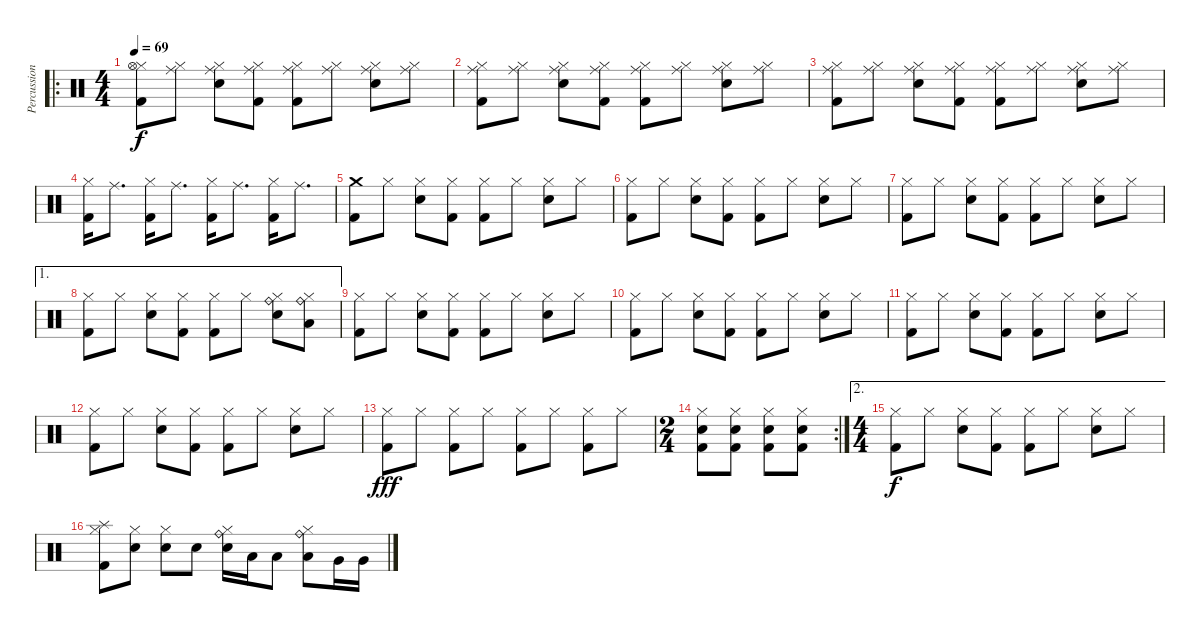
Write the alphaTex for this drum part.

\track ("Percussion" "Percussion") {instrument percussion}
\staff {score}
\articulation defaults
\ro
\ts (4 4)
\tempo 69
\clef neutral
\ks c
("Hi-Hat (closed)" "Hi-Hat (open)" "Kick (hit) 2").8{dy f} ("Hi-Hat (closed)" "Ride (middle)").8 ("Hi-Hat (closed)" "Ride (middle)" "Snare (hit) 2").8 ("Hi-Hat (closed)" "Ride (middle)" "Kick (hit) 2").8 ("Hi-Hat (closed)" "Ride (middle)" "Kick (hit) 2").8 ("Hi-Hat (closed)" "Ride (middle)").8 ("Hi-Hat (closed)" "Ride (middle)" "Snare (hit) 2").8 ("Hi-Hat (closed)" "Ride (middle)").8 |
("Hi-Hat (closed)" "Ride (middle)" "Kick (hit) 2").8 ("Hi-Hat (closed)" "Ride (middle)").8 ("Hi-Hat (closed)" "Ride (middle)" "Snare (hit) 2").8 ("Hi-Hat (closed)" "Ride (middle)" "Kick (hit) 2").8 ("Hi-Hat (closed)" "Ride (middle)" "Kick (hit) 2").8 ("Hi-Hat (closed)" "Ride (middle)").8 ("Hi-Hat (closed)" "Ride (middle)" "Snare (hit) 2").8 ("Hi-Hat (closed)" "Ride (middle)").8 |
("Hi-Hat (closed)" "Ride (middle)" "Kick (hit) 2").8 ("Hi-Hat (closed)" "Ride (middle)").8 ("Hi-Hat (closed)" "Ride (middle)" "Snare (hit) 2").8 ("Hi-Hat (closed)" "Ride (middle)" "Kick (hit) 2").8 ("Hi-Hat (closed)" "Ride (middle)" "Kick (hit) 2").8 ("Hi-Hat (closed)" "Ride (middle)").8 ("Hi-Hat (closed)" "Ride (middle)" "Snare (hit) 2").8 ("Hi-Hat (closed)" "Ride (middle)").8 |
("Hi-Hat (closed)" "Kick (hit) 2").16 "Ride (middle)".8{d} ("Hi-Hat (closed)" "Kick (hit) 2").16 "Ride (middle)".8{d} ("Hi-Hat (closed)" "Kick (hit) 2").16 "Ride (middle)".8{d} ("Hi-Hat (closed)" "Kick (hit) 2").16 "Ride (middle)".8{d} |
("Crash medium (hit)" "Kick (hit) 2").8 "Hi-Hat (closed)".8 ("Hi-Hat (closed)" "Snare (hit) 2").8 ("Hi-Hat (closed)" "Kick (hit) 2").8 ("Hi-Hat (closed)" "Kick (hit) 2").8 "Hi-Hat (closed)".8 ("Hi-Hat (closed)" "Snare (hit) 2").8 "Hi-Hat (closed)".8 |
("Hi-Hat (closed)" "Kick (hit) 2").8 "Hi-Hat (closed)".8 ("Hi-Hat (closed)" "Snare (hit) 2").8 ("Hi-Hat (closed)" "Kick (hit) 2").8 ("Hi-Hat (closed)" "Kick (hit) 2").8 "Hi-Hat (closed)".8 ("Hi-Hat (closed)" "Snare (hit) 2").8 "Hi-Hat (closed)".8 |
("Hi-Hat (closed)" "Kick (hit) 2").8 "Hi-Hat (closed)".8 ("Hi-Hat (closed)" "Snare (hit) 2").8 ("Hi-Hat (closed)" "Kick (hit) 2").8 ("Hi-Hat (closed)" "Kick (hit) 2").8 "Hi-Hat (closed)".8 ("Hi-Hat (closed)" "Snare (hit) 2").8 "Hi-Hat (closed)".8 |
\ae 1
("Hi-Hat (closed)" "Kick (hit) 2").8 "Hi-Hat (closed)".8 ("Hi-Hat (closed)" "Snare (hit) 2").8 ("Hi-Hat (closed)" "Kick (hit) 2").8 ("Hi-Hat (closed)" "Kick (hit) 2").8 "Hi-Hat (closed)".8 ("Hi-Hat (closed)" "Ride (bell)" "Snare (hit) 2").8 ("Hi-Hat (closed)" "Ride (bell)" "Low Tom (hit)").8 |
("Hi-Hat (closed)" "Kick (hit) 2").8 "Hi-Hat (closed)".8 ("Hi-Hat (closed)" "Snare (hit) 2").8 ("Hi-Hat (closed)" "Kick (hit) 2").8 ("Hi-Hat (closed)" "Kick (hit) 2").8 "Hi-Hat (closed)".8 ("Hi-Hat (closed)" "Snare (hit) 2").8 "Hi-Hat (closed)".8 |
("Hi-Hat (closed)" "Kick (hit) 2").8 "Hi-Hat (closed)".8 ("Hi-Hat (closed)" "Snare (hit) 2").8 ("Hi-Hat (closed)" "Kick (hit) 2").8 ("Hi-Hat (closed)" "Kick (hit) 2").8 "Hi-Hat (closed)".8 ("Hi-Hat (closed)" "Snare (hit) 2").8 "Hi-Hat (closed)".8 |
("Hi-Hat (closed)" "Kick (hit) 2").8 "Hi-Hat (closed)".8 ("Hi-Hat (closed)" "Snare (hit) 2").8 ("Hi-Hat (closed)" "Kick (hit) 2").8 ("Hi-Hat (closed)" "Kick (hit) 2").8 "Hi-Hat (closed)".8 ("Hi-Hat (closed)" "Snare (hit) 2").8 "Hi-Hat (closed)".8 |
("Hi-Hat (closed)" "Kick (hit) 2").8 "Hi-Hat (closed)".8 ("Hi-Hat (closed)" "Snare (hit) 2").8 ("Hi-Hat (closed)" "Kick (hit) 2").8 ("Hi-Hat (closed)" "Kick (hit) 2").8 "Hi-Hat (closed)".8 ("Hi-Hat (closed)" "Snare (hit) 2").8 "Hi-Hat (closed)".8 |
("Hi-Hat (closed)" "Kick (hit) 2").8{dy fff} "Hi-Hat (closed)".8 ("Hi-Hat (closed)" "Kick (hit) 2").8 "Hi-Hat (closed)".8 ("Hi-Hat (closed)" "Kick (hit) 2").8 "Hi-Hat (closed)".8 ("Hi-Hat (closed)" "Kick (hit) 2").8 "Hi-Hat (closed)".8 |
\rc 2
\ts (2 4)
("Hi-Hat (closed)" "Snare (hit) 2" "Kick (hit) 2").8 ("Hi-Hat (closed)" "Snare (hit) 2" "Kick (hit) 2").8 ("Hi-Hat (closed)" "Snare (hit) 2" "Kick (hit) 2").8 ("Hi-Hat (closed)" "Snare (hit) 2" "Kick (hit) 2").8 |
\ae 2
\ts (4 4)
("Hi-Hat (closed)" "Kick (hit) 2").8{dy f} "Hi-Hat (closed)".8 ("Hi-Hat (closed)" "Snare (hit) 2").8 ("Hi-Hat (closed)" "Kick (hit) 2").8 ("Hi-Hat (closed)" "Kick (hit) 2").8 "Hi-Hat (closed)".8 ("Hi-Hat (closed)" "Snare (hit) 2").8 "Hi-Hat (closed)".8 |
("Hi-Hat (closed)" "Splash (hit)" "Kick (hit) 2").8 ("Hi-Hat (closed)" "Snare (hit) 2").8 ("Hi-Hat (closed)" "Snare (hit) 2").8 "Snare (hit) 2".8 ("Hi-Hat (closed)" "Ride (bell)" "Snare (hit) 2").16 "Low Tom (hit)".16 "Low Tom (hit)".8 ("Hi-Hat (closed)" "Ride (bell)" "Low Tom (hit)").8 "Very Low Tom (hit)".16 "Very Low Tom (hit)".16
